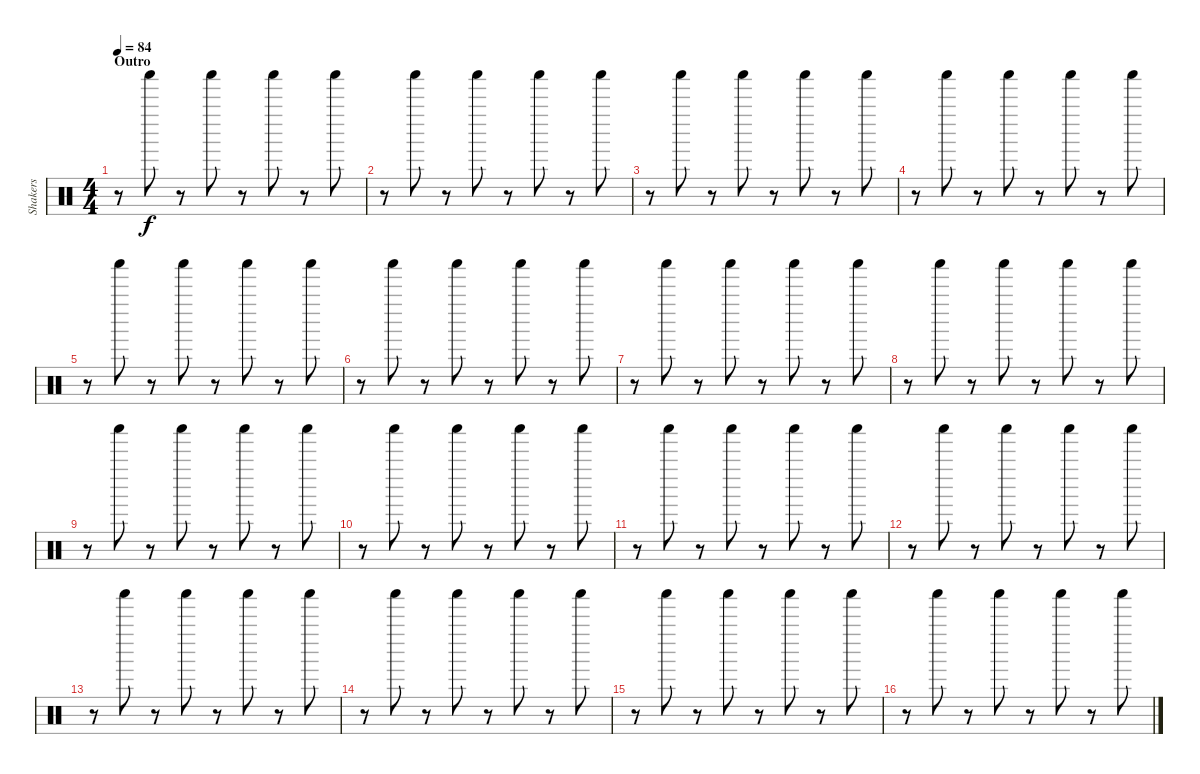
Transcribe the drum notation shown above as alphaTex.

\track ("Shakers" "Shakers") {instrument percussion}
\staff {score}
\articulation defaults
\ts (4 4)
\section ("" "Outro")
\tempo 84
\clef neutral
\ks c
r.8{dy f} "Shaker (hit)".8 r.8 "Shaker (hit)".8 r.8 "Shaker (hit)".8 r.8 "Shaker (hit)".8 |
r.8 "Shaker (hit)".8 r.8 "Shaker (hit)".8 r.8 "Shaker (hit)".8 r.8 "Shaker (hit)".8 |
r.8 "Shaker (hit)".8 r.8 "Shaker (hit)".8 r.8 "Shaker (hit)".8 r.8 "Shaker (hit)".8 |
r.8 "Shaker (hit)".8 r.8 "Shaker (hit)".8 r.8 "Shaker (hit)".8 r.8 "Shaker (hit)".8 |
r.8 "Shaker (hit)".8 r.8 "Shaker (hit)".8 r.8 "Shaker (hit)".8 r.8 "Shaker (hit)".8 |
r.8 "Shaker (hit)".8 r.8 "Shaker (hit)".8 r.8 "Shaker (hit)".8 r.8 "Shaker (hit)".8 |
r.8 "Shaker (hit)".8 r.8 "Shaker (hit)".8 r.8 "Shaker (hit)".8 r.8 "Shaker (hit)".8 |
r.8 "Shaker (hit)".8 r.8 "Shaker (hit)".8 r.8 "Shaker (hit)".8 r.8 "Shaker (hit)".8 |
r.8 "Shaker (hit)".8 r.8 "Shaker (hit)".8 r.8 "Shaker (hit)".8 r.8 "Shaker (hit)".8 |
r.8 "Shaker (hit)".8 r.8 "Shaker (hit)".8 r.8 "Shaker (hit)".8 r.8 "Shaker (hit)".8 |
r.8 "Shaker (hit)".8 r.8 "Shaker (hit)".8 r.8 "Shaker (hit)".8 r.8 "Shaker (hit)".8 |
r.8 "Shaker (hit)".8 r.8 "Shaker (hit)".8 r.8 "Shaker (hit)".8 r.8 "Shaker (hit)".8 |
r.8 "Shaker (hit)".8 r.8 "Shaker (hit)".8 r.8 "Shaker (hit)".8 r.8 "Shaker (hit)".8 |
r.8 "Shaker (hit)".8 r.8 "Shaker (hit)".8 r.8 "Shaker (hit)".8 r.8 "Shaker (hit)".8 |
r.8 "Shaker (hit)".8 r.8 "Shaker (hit)".8 r.8 "Shaker (hit)".8 r.8 "Shaker (hit)".8 |
r.8 "Shaker (hit)".8 r.8 "Shaker (hit)".8 r.8 "Shaker (hit)".8 r.8 "Shaker (hit)".8
